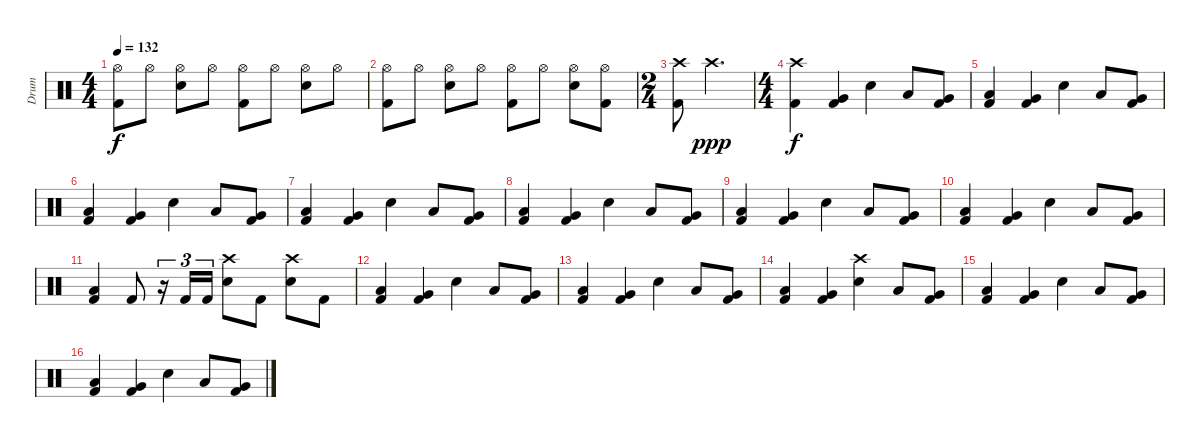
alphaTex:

\track ("Drum" "Drum") {instrument percussion}
\staff {score}
\articulation defaults
\ts (4 4)
\tempo 132
\clef neutral
\ks c
("Hi-Hat (open)" "Kick (hit) 2").8{dy f} "Hi-Hat (open)".8 ("Hi-Hat (open)" "Snare (hit) 2").8 "Hi-Hat (open)".8 ("Hi-Hat (open)" "Kick (hit) 2").8 "Hi-Hat (open)".8 ("Hi-Hat (open)" "Snare (hit) 2").8 "Hi-Hat (open)".8 |
("Hi-Hat (open)" "Kick (hit) 2").8 "Hi-Hat (open)".8 ("Hi-Hat (open)" "Snare (hit) 2").8 "Hi-Hat (open)".8 ("Hi-Hat (open)" "Kick (hit) 2").8 "Hi-Hat (open)".8 ("Hi-Hat (open)" "Snare (hit) 2").8 ("Hi-Hat (open)" "Kick (hit) 2").8 |
\ts (2 4)
("Crash high (hit)" "Kick (hit) 2").8 "Crash high (hit)".4{d dy ppp} |
\ts (4 4)
("Crash high (hit)" "Kick (hit) 2").4{dy f} ("Very Low Tom (hit)" "Kick (hit) 2").4 "Snare (hit) 2".4 "Low Tom (hit)".8 ("Very Low Tom (hit)" "Kick (hit) 2").8 |
("Low Floor Tom (hit)" "Kick (hit) 2").4 ("Very Low Tom (hit)" "Kick (hit) 2").4 "Snare (hit) 2".4 "Low Tom (hit)".8 ("Very Low Tom (hit)" "Kick (hit) 2").8 |
("Low Floor Tom (hit)" "Kick (hit) 2").4 ("Very Low Tom (hit)" "Kick (hit) 2").4 "Snare (hit) 2".4 "Low Tom (hit)".8 ("Very Low Tom (hit)" "Kick (hit) 2").8 |
("Low Floor Tom (hit)" "Kick (hit) 2").4 ("Very Low Tom (hit)" "Kick (hit) 2").4 "Snare (hit) 2".4 "Low Tom (hit)".8 ("Very Low Tom (hit)" "Kick (hit) 2").8 |
("Low Floor Tom (hit)" "Kick (hit) 2").4 ("Very Low Tom (hit)" "Kick (hit) 2").4 "Snare (hit) 2".4 "Low Tom (hit)".8 ("Very Low Tom (hit)" "Kick (hit) 2").8 |
("Low Floor Tom (hit)" "Kick (hit) 2").4 ("Very Low Tom (hit)" "Kick (hit) 2").4 "Snare (hit) 2".4 "Low Tom (hit)".8 ("Very Low Tom (hit)" "Kick (hit) 2").8 |
("Low Floor Tom (hit)" "Kick (hit) 2").4 ("Very Low Tom (hit)" "Kick (hit) 2").4 "Snare (hit) 2".4 "Low Tom (hit)".8 ("Very Low Tom (hit)" "Kick (hit) 2").8 |
("Low Floor Tom (hit)" "Kick (hit) 2").4 "Kick (hit) 2".8 r.16{tu (3 2)} "Kick (hit) 2".16{tu (3 2)} "Kick (hit) 2".16{tu (3 2)} ("Crash high (hit)" "Snare (hit) 2").8 "Kick (hit) 2".8 ("Crash high (hit)" "Snare (hit) 2").8 "Kick (hit) 2".8 |
("Low Floor Tom (hit)" "Kick (hit) 2").4 ("Very Low Tom (hit)" "Kick (hit) 2").4 "Snare (hit) 2".4 "Low Tom (hit)".8 ("Very Low Tom (hit)" "Kick (hit) 2").8 |
("Low Floor Tom (hit)" "Kick (hit) 2").4 ("Very Low Tom (hit)" "Kick (hit) 2").4 "Snare (hit) 2".4 "Low Tom (hit)".8 ("Very Low Tom (hit)" "Kick (hit) 2").8 |
("Low Floor Tom (hit)" "Kick (hit) 2").4 ("Very Low Tom (hit)" "Kick (hit) 2").4 ("Crash high (hit)" "Snare (hit) 2").4 "Low Tom (hit)".8 ("Very Low Tom (hit)" "Kick (hit) 2").8 |
("Low Floor Tom (hit)" "Kick (hit) 2").4 ("Very Low Tom (hit)" "Kick (hit) 2").4 "Snare (hit) 2".4 "Low Tom (hit)".8 ("Very Low Tom (hit)" "Kick (hit) 2").8 |
("Low Floor Tom (hit)" "Kick (hit) 2").4 ("Very Low Tom (hit)" "Kick (hit) 2").4 "Snare (hit) 2".4 "Low Tom (hit)".8 ("Very Low Tom (hit)" "Kick (hit) 2").8
